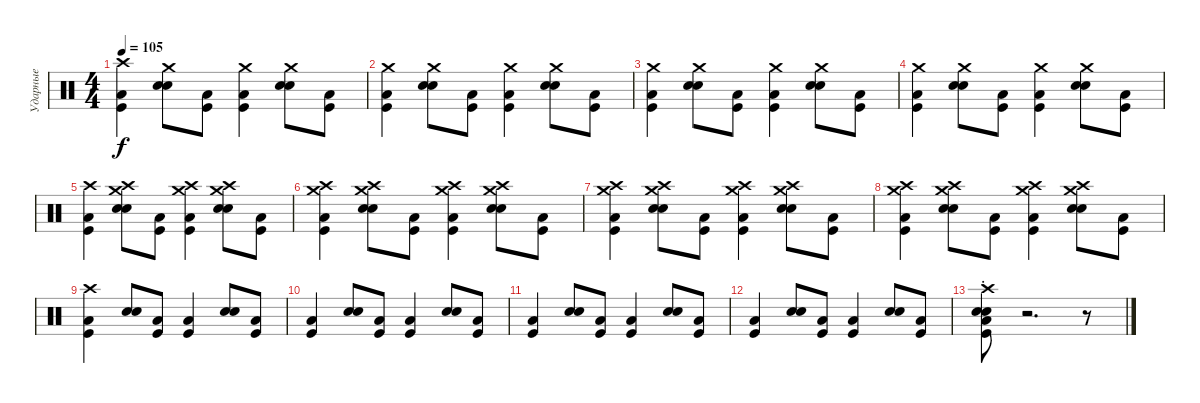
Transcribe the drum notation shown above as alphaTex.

\track ("Ударные" "Ударные") {instrument percussion}
\staff {score}
\articulation defaults
\ts (4 4)
\tempo 105
\clef neutral
\ks c
("Crash high (hit)" "Low Tom (hit)" "Kick (hit)").4{dy f} ("Crash medium (hit)" "Electric Snare (hit)" "Snare (hit) 2").8 ("Low Tom (hit)" "Kick (hit)").8 ("Crash medium (hit)" "Low Tom (hit)" "Kick (hit)").4 ("Crash medium (hit)" "Electric Snare (hit)" "Snare (hit) 2").8 ("Low Tom (hit)" "Kick (hit)").8 |
("Crash medium (hit)" "Low Tom (hit)" "Kick (hit)").4 ("Crash medium (hit)" "Electric Snare (hit)" "Snare (hit) 2").8 ("Low Tom (hit)" "Kick (hit)").8 ("Crash medium (hit)" "Low Tom (hit)" "Kick (hit)").4 ("Crash medium (hit)" "Electric Snare (hit)" "Snare (hit) 2").8 ("Low Tom (hit)" "Kick (hit)").8 |
("Crash medium (hit)" "Low Tom (hit)" "Kick (hit)").4 ("Crash medium (hit)" "Electric Snare (hit)" "Snare (hit) 2").8 ("Low Tom (hit)" "Kick (hit)").8 ("Crash medium (hit)" "Low Tom (hit)" "Kick (hit)").4 ("Crash medium (hit)" "Electric Snare (hit)" "Snare (hit) 2").8 ("Low Tom (hit)" "Kick (hit)").8 |
("Crash medium (hit)" "Low Tom (hit)" "Kick (hit)").4 ("Crash medium (hit)" "Electric Snare (hit)" "Snare (hit) 2").8 ("Low Tom (hit)" "Kick (hit)").8 ("Crash medium (hit)" "Low Tom (hit)" "Kick (hit)").4 ("Crash medium (hit)" "Electric Snare (hit)" "Snare (hit) 2").8 ("Low Tom (hit)" "Kick (hit)").8 |
("Crash high (hit)" "Low Tom (hit)" "Kick (hit)").4 ("Crash medium (hit)" "Electric Snare (hit)" "Snare (hit) 2" "Crash high (hit)").8 ("Low Tom (hit)" "Kick (hit)").8 ("Crash medium (hit)" "Low Tom (hit)" "Kick (hit)" "Crash high (hit)").4 ("Crash medium (hit)" "Electric Snare (hit)" "Snare (hit) 2" "Crash high (hit)").8 ("Low Tom (hit)" "Kick (hit)").8 |
("Crash medium (hit)" "Low Tom (hit)" "Kick (hit)" "Crash high (hit)").4 ("Crash medium (hit)" "Electric Snare (hit)" "Snare (hit) 2" "Crash high (hit)").8 ("Low Tom (hit)" "Kick (hit)").8 ("Crash medium (hit)" "Low Tom (hit)" "Kick (hit)" "Crash high (hit)").4 ("Crash medium (hit)" "Electric Snare (hit)" "Snare (hit) 2" "Crash high (hit)").8 ("Low Tom (hit)" "Kick (hit)").8 |
("Crash medium (hit)" "Low Tom (hit)" "Kick (hit)" "Crash high (hit)").4 ("Crash medium (hit)" "Electric Snare (hit)" "Snare (hit) 2" "Crash high (hit)").8 ("Low Tom (hit)" "Kick (hit)").8 ("Crash medium (hit)" "Low Tom (hit)" "Kick (hit)" "Crash high (hit)").4 ("Crash medium (hit)" "Electric Snare (hit)" "Snare (hit) 2" "Crash high (hit)").8 ("Low Tom (hit)" "Kick (hit)").8 |
("Crash medium (hit)" "Low Tom (hit)" "Kick (hit)" "Crash high (hit)").4 ("Crash medium (hit)" "Electric Snare (hit)" "Snare (hit) 2" "Crash high (hit)").8 ("Low Tom (hit)" "Kick (hit)").8 ("Crash medium (hit)" "Low Tom (hit)" "Kick (hit)" "Crash high (hit)").4 ("Crash medium (hit)" "Electric Snare (hit)" "Snare (hit) 2" "Crash high (hit)").8 ("Low Tom (hit)" "Kick (hit)").8 |
("Crash high (hit)" "Low Tom (hit)" "Kick (hit)").4 ("Electric Snare (hit)" "Snare (hit) 2").8 ("Low Tom (hit)" "Kick (hit)").8 ("Low Tom (hit)" "Kick (hit)").4 ("Electric Snare (hit)" "Snare (hit) 2").8 ("Low Tom (hit)" "Kick (hit)").8 |
("Low Tom (hit)" "Kick (hit)").4 ("Electric Snare (hit)" "Snare (hit) 2").8 ("Low Tom (hit)" "Kick (hit)").8 ("Low Tom (hit)" "Kick (hit)").4 ("Electric Snare (hit)" "Snare (hit) 2").8 ("Low Tom (hit)" "Kick (hit)").8 |
("Low Tom (hit)" "Kick (hit)").4 ("Electric Snare (hit)" "Snare (hit) 2").8 ("Low Tom (hit)" "Kick (hit)").8 ("Low Tom (hit)" "Kick (hit)").4 ("Electric Snare (hit)" "Snare (hit) 2").8 ("Low Tom (hit)" "Kick (hit)").8 |
("Low Tom (hit)" "Kick (hit)").4 ("Electric Snare (hit)" "Snare (hit) 2").8 ("Low Tom (hit)" "Kick (hit)").8 ("Low Tom (hit)" "Kick (hit)").4 ("Electric Snare (hit)" "Snare (hit) 2").8 ("Low Tom (hit)" "Kick (hit)").8 |
("Crash high (hit)"{st} "Electric Snare (hit)"{st} "Snare (hit) 2"{st} "Low Tom (hit)"{st} "Kick (hit)"{st}).8 r.2{d} r.8
